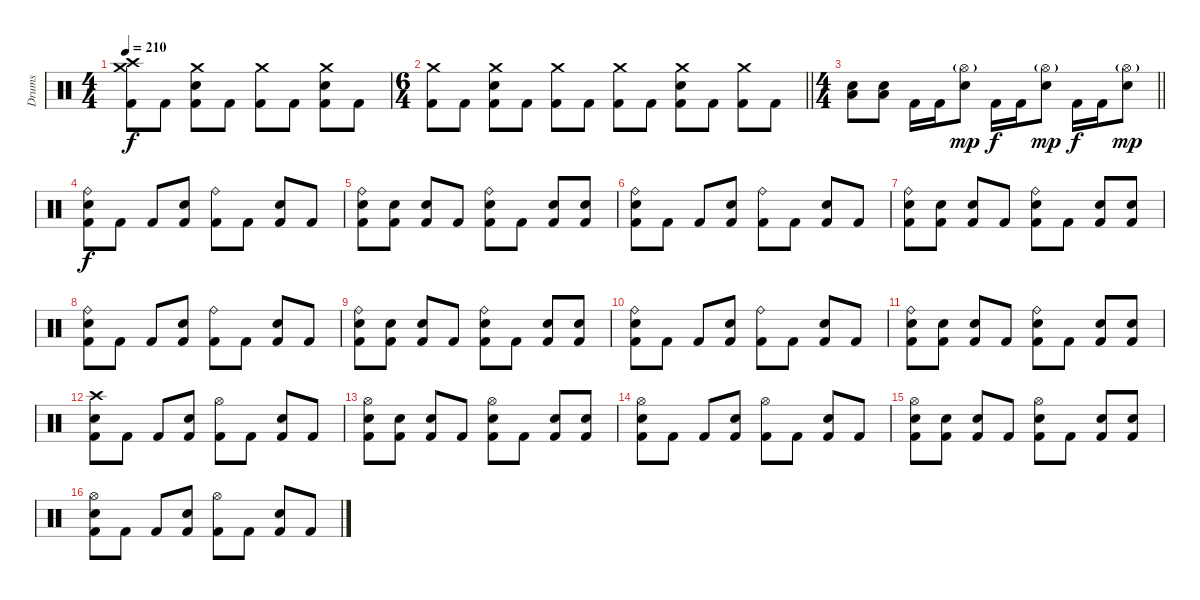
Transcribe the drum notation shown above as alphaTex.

\track ("Drums" "Drums") {instrument percussion}
\staff {score}
\articulation defaults
\ts (4 4)
\tempo 210
\clef neutral
\ks c
("Crash medium (hit)" "Crash high (hit)" "Kick (hit) 2").8{dy f} "Kick (hit) 2".8 ("Crash medium (hit)" "Electric Snare (hit)" "Kick (hit) 2").8 "Kick (hit) 2".8 ("Crash medium (hit)" "Kick (hit) 2").8 "Kick (hit) 2".8 ("Crash medium (hit)" "Electric Snare (hit)" "Kick (hit) 2").8 "Kick (hit) 2".8 |
\ts (6 4)
\barLineRight lightlight
("Crash medium (hit)" "Kick (hit) 2").8 "Kick (hit) 2".8 ("Crash medium (hit)" "Electric Snare (hit)" "Kick (hit) 2").8 "Kick (hit) 2".8 ("Crash medium (hit)" "Kick (hit) 2").8 "Kick (hit) 2".8 ("Crash medium (hit)" "Kick (hit) 2").8 "Kick (hit) 2".8 ("Crash medium (hit)" "Electric Snare (hit)" "Kick (hit) 2").8 "Kick (hit) 2".8 ("Crash medium (hit)" "Kick (hit) 2").8 "Kick (hit) 2".8 |
\ts (4 4)
\barLineRight lightlight
("Low Tom (hit)" "Electric Snare (hit)").8 ("Low Tom (hit)" "Electric Snare (hit)").8 "Kick (hit) 2".16 "Kick (hit) 2".16 ("Hi-Hat (open)"{g} "Electric Snare (hit)").8{dy mp} "Kick (hit) 2".16{dy f} "Kick (hit) 2".16 ("Hi-Hat (open)"{g} "Electric Snare (hit)").8{dy mp} "Kick (hit) 2".16{dy f} "Kick (hit) 2".16 ("Hi-Hat (open)"{g} "Electric Snare (hit)").8{dy mp} |
("Ride (bell)" "Electric Snare (hit)" "Kick (hit) 2").8{dy f} "Kick (hit) 2".8 "Kick (hit) 2".8 ("Electric Snare (hit)" "Kick (hit) 2").8 ("Ride (bell)" "Kick (hit) 2").8 "Kick (hit) 2".8 ("Electric Snare (hit)" "Kick (hit) 2").8 "Kick (hit) 2".8 |
("Ride (bell)" "Electric Snare (hit)" "Kick (hit) 2").8 ("Electric Snare (hit)" "Kick (hit) 2").8 ("Electric Snare (hit)" "Kick (hit) 2").8 "Kick (hit) 2".8 ("Ride (bell)" "Electric Snare (hit)" "Kick (hit) 2").8 "Kick (hit) 2".8 ("Electric Snare (hit)" "Kick (hit) 2").8 ("Electric Snare (hit)" "Kick (hit) 2").8 |
("Ride (bell)" "Electric Snare (hit)" "Kick (hit) 2").8 "Kick (hit) 2".8 "Kick (hit) 2".8 ("Electric Snare (hit)" "Kick (hit) 2").8 ("Ride (bell)" "Kick (hit) 2").8 "Kick (hit) 2".8 ("Electric Snare (hit)" "Kick (hit) 2").8 "Kick (hit) 2".8 |
("Ride (bell)" "Electric Snare (hit)" "Kick (hit) 2").8 ("Electric Snare (hit)" "Kick (hit) 2").8 ("Electric Snare (hit)" "Kick (hit) 2").8 "Kick (hit) 2".8 ("Ride (bell)" "Electric Snare (hit)" "Kick (hit) 2").8 "Kick (hit) 2".8 ("Electric Snare (hit)" "Kick (hit) 2").8 ("Electric Snare (hit)" "Kick (hit) 2").8 |
("Ride (bell)" "Electric Snare (hit)" "Kick (hit) 2").8 "Kick (hit) 2".8 "Kick (hit) 2".8 ("Electric Snare (hit)" "Kick (hit) 2").8 ("Ride (bell)" "Kick (hit) 2").8 "Kick (hit) 2".8 ("Electric Snare (hit)" "Kick (hit) 2").8 "Kick (hit) 2".8 |
("Ride (bell)" "Electric Snare (hit)" "Kick (hit) 2").8 ("Electric Snare (hit)" "Kick (hit) 2").8 ("Electric Snare (hit)" "Kick (hit) 2").8 "Kick (hit) 2".8 ("Ride (bell)" "Electric Snare (hit)" "Kick (hit) 2").8 "Kick (hit) 2".8 ("Electric Snare (hit)" "Kick (hit) 2").8 ("Electric Snare (hit)" "Kick (hit) 2").8 |
("Ride (bell)" "Electric Snare (hit)" "Kick (hit) 2").8 "Kick (hit) 2".8 "Kick (hit) 2".8 ("Electric Snare (hit)" "Kick (hit) 2").8 ("Ride (bell)" "Kick (hit) 2").8 "Kick (hit) 2".8 ("Electric Snare (hit)" "Kick (hit) 2").8 "Kick (hit) 2".8 |
("Ride (bell)" "Electric Snare (hit)" "Kick (hit) 2").8 ("Electric Snare (hit)" "Kick (hit) 2").8 ("Electric Snare (hit)" "Kick (hit) 2").8 "Kick (hit) 2".8 ("Ride (bell)" "Electric Snare (hit)" "Kick (hit) 2").8 "Kick (hit) 2".8 ("Electric Snare (hit)" "Kick (hit) 2").8 ("Electric Snare (hit)" "Kick (hit) 2").8 |
("Crash high (hit)" "Electric Snare (hit)" "Kick (hit) 2").8 "Kick (hit) 2".8 "Kick (hit) 2".8 ("Electric Snare (hit)" "Kick (hit) 2").8 ("Hi-Hat (open)" "Kick (hit) 2").8 "Kick (hit) 2".8 ("Electric Snare (hit)" "Kick (hit) 2").8 "Kick (hit) 2".8 |
("Hi-Hat (open)" "Electric Snare (hit)" "Kick (hit) 2").8 ("Electric Snare (hit)" "Kick (hit) 2").8 ("Electric Snare (hit)" "Kick (hit) 2").8 "Kick (hit) 2".8 ("Hi-Hat (open)" "Electric Snare (hit)" "Kick (hit) 2").8 "Kick (hit) 2".8 ("Electric Snare (hit)" "Kick (hit) 2").8 ("Electric Snare (hit)" "Kick (hit) 2").8 |
("Hi-Hat (open)" "Electric Snare (hit)" "Kick (hit) 2").8 "Kick (hit) 2".8 "Kick (hit) 2".8 ("Electric Snare (hit)" "Kick (hit) 2").8 ("Hi-Hat (open)" "Kick (hit) 2").8 "Kick (hit) 2".8 ("Electric Snare (hit)" "Kick (hit) 2").8 "Kick (hit) 2".8 |
("Hi-Hat (open)" "Electric Snare (hit)" "Kick (hit) 2").8 ("Electric Snare (hit)" "Kick (hit) 2").8 ("Electric Snare (hit)" "Kick (hit) 2").8 "Kick (hit) 2".8 ("Hi-Hat (open)" "Electric Snare (hit)" "Kick (hit) 2").8 "Kick (hit) 2".8 ("Electric Snare (hit)" "Kick (hit) 2").8 ("Electric Snare (hit)" "Kick (hit) 2").8 |
("Hi-Hat (open)" "Electric Snare (hit)" "Kick (hit) 2").8 "Kick (hit) 2".8 "Kick (hit) 2".8 ("Electric Snare (hit)" "Kick (hit) 2").8 ("Hi-Hat (open)" "Kick (hit) 2").8 "Kick (hit) 2".8 ("Electric Snare (hit)" "Kick (hit) 2").8 "Kick (hit) 2".8
